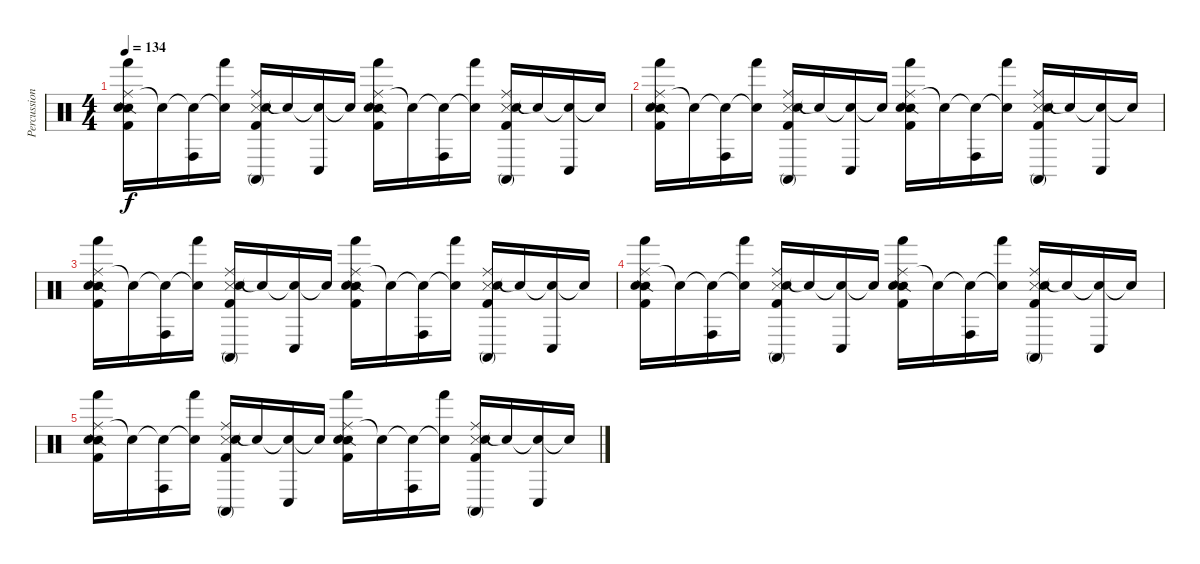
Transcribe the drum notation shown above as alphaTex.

\track ("Percussion" "Percussion") {instrument percussion}
\staff {score}
\articulation defaults
\ts (4 4)
\tempo 134
\clef neutral
\ks c
("Ride (middle)" "Hand (hit)" "Snare (side stick) 2" "Electric Snare (hit)" "Kick (hit) 2").16{dy f} "Snare (hit)"{t}.16 ("Snare (hit)"{t} "Conga high (hit)").16 ("Snare (hit)"{t} "Hand (hit)").16 ("Ride (middle)" "Conga high (mute)" "Metronome (hit)" "Electric Snare (hit)" "Kick (hit) 2").16 "Snare (hit)"{t}.16 ("Snare (hit)"{t} "Conga low (hit)").16 "Snare (hit)"{t}.16 ("Ride (middle)" "Hand (hit)" "Snare (side stick) 2" "Electric Snare (hit)" "Kick (hit) 2").16 "Snare (hit)"{t}.16 ("Snare (hit)"{t} "Conga high (hit)").16 ("Snare (hit)"{t} "Hand (hit)").16 ("Ride (middle)" "Conga high (mute)" "Metronome (hit)" "Electric Snare (hit)" "Kick (hit) 2").16 "Snare (hit)"{t}.16 ("Snare (hit)"{t} "Conga low (hit)").16 "Snare (hit)"{t}.16 |
("Ride (middle)" "Hand (hit)" "Snare (side stick) 2" "Electric Snare (hit)" "Kick (hit) 2").16 "Snare (hit)"{t}.16 ("Snare (hit)"{t} "Conga high (hit)").16 ("Snare (hit)"{t} "Hand (hit)").16 ("Ride (middle)" "Conga high (mute)" "Metronome (hit)" "Electric Snare (hit)" "Kick (hit) 2").16 "Snare (hit)"{t}.16 ("Snare (hit)"{t} "Conga low (hit)").16 "Snare (hit)"{t}.16 ("Ride (middle)" "Hand (hit)" "Snare (side stick) 2" "Electric Snare (hit)" "Kick (hit) 2").16 "Snare (hit)"{t}.16 ("Snare (hit)"{t} "Conga high (hit)").16 ("Snare (hit)"{t} "Hand (hit)").16 ("Ride (middle)" "Conga high (mute)" "Metronome (hit)" "Electric Snare (hit)" "Kick (hit) 2").16 "Snare (hit)"{t}.16 ("Snare (hit)"{t} "Conga low (hit)").16 "Snare (hit)"{t}.16 |
("Ride (middle)" "Hand (hit)" "Snare (side stick) 2" "Electric Snare (hit)" "Kick (hit) 2").16 "Snare (hit)"{t}.16 ("Snare (hit)"{t} "Conga high (hit)").16 ("Snare (hit)"{t} "Hand (hit)").16 ("Ride (middle)" "Conga high (mute)" "Metronome (hit)" "Electric Snare (hit)" "Kick (hit) 2").16 "Snare (hit)"{t}.16 ("Snare (hit)"{t} "Conga low (hit)").16 "Snare (hit)"{t}.16 ("Ride (middle)" "Hand (hit)" "Snare (side stick) 2" "Electric Snare (hit)" "Kick (hit) 2").16 "Snare (hit)"{t}.16 ("Snare (hit)"{t} "Conga high (hit)").16 ("Snare (hit)"{t} "Hand (hit)").16 ("Ride (middle)" "Conga high (mute)" "Metronome (hit)" "Electric Snare (hit)" "Kick (hit) 2").16 "Snare (hit)"{t}.16 ("Snare (hit)"{t} "Conga low (hit)").16 "Snare (hit)"{t}.16 |
("Ride (middle)" "Hand (hit)" "Snare (side stick) 2" "Electric Snare (hit)" "Kick (hit) 2").16 "Snare (hit)"{t}.16 ("Snare (hit)"{t} "Conga high (hit)").16 ("Snare (hit)"{t} "Hand (hit)").16 ("Ride (middle)" "Conga high (mute)" "Metronome (hit)" "Electric Snare (hit)" "Kick (hit) 2").16 "Snare (hit)"{t}.16 ("Snare (hit)"{t} "Conga low (hit)").16 "Snare (hit)"{t}.16 ("Ride (middle)" "Hand (hit)" "Snare (side stick) 2" "Electric Snare (hit)" "Kick (hit) 2").16 "Snare (hit)"{t}.16 ("Snare (hit)"{t} "Conga high (hit)").16 ("Snare (hit)"{t} "Hand (hit)").16 ("Ride (middle)" "Conga high (mute)" "Metronome (hit)" "Electric Snare (hit)" "Kick (hit) 2").16 "Snare (hit)"{t}.16 ("Snare (hit)"{t} "Conga low (hit)").16 "Snare (hit)"{t}.16 |
("Ride (middle)" "Hand (hit)" "Snare (side stick) 2" "Electric Snare (hit)" "Kick (hit) 2").16 "Snare (hit)"{t}.16 ("Snare (hit)"{t} "Conga high (hit)").16 ("Snare (hit)"{t} "Hand (hit)").16 ("Ride (middle)" "Conga high (mute)" "Metronome (hit)" "Electric Snare (hit)" "Kick (hit) 2").16 "Snare (hit)"{t}.16 ("Snare (hit)"{t} "Conga low (hit)").16 "Snare (hit)"{t}.16 ("Ride (middle)" "Hand (hit)" "Snare (side stick) 2" "Electric Snare (hit)" "Kick (hit) 2").16 "Snare (hit)"{t}.16 ("Snare (hit)"{t} "Conga high (hit)").16 ("Snare (hit)"{t} "Hand (hit)").16 ("Ride (middle)" "Conga high (mute)" "Metronome (hit)" "Electric Snare (hit)" "Kick (hit) 2").16 "Snare (hit)"{t}.16 ("Snare (hit)"{t} "Conga low (hit)").16 "Snare (hit)"{t}.16
